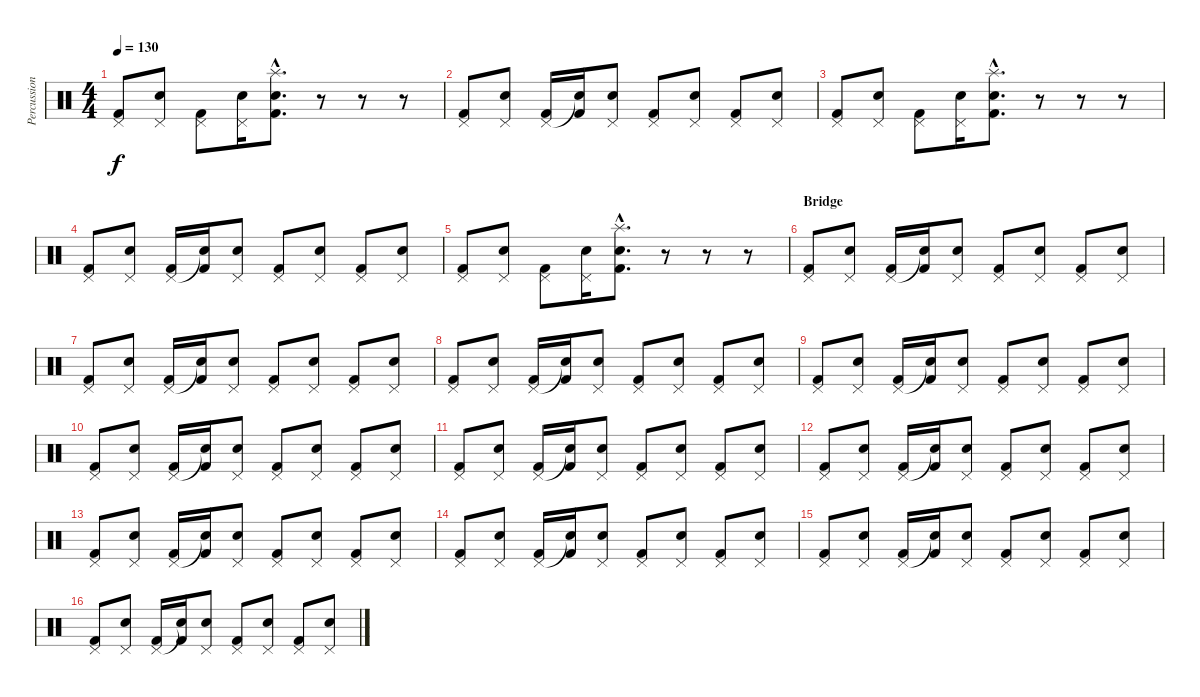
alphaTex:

\track ("Percussion" "Percussion") {instrument percussion}
\staff {score}
\articulation defaults
\ts (4 4)
\tempo 130
\clef neutral
\ks c
("Pedal Hi-Hat (hit)" "Kick (hit) 2").8{dy f} ("Pedal Hi-Hat (hit)" "Electric Snare (hit)").8 ("Pedal Hi-Hat (hit)" "Kick (hit) 2").8 ("Pedal Hi-Hat (hit)" "Electric Snare (hit)").16 ("Splash (hit)"{hac} "Electric Snare (hit)"{hac} "Kick (hit) 2"{hac}).8{d} r.8 r.8 r.8 |
("Pedal Hi-Hat (hit)" "Kick (hit) 2").8 ("Pedal Hi-Hat (hit)" "Electric Snare (hit)").8 ("Pedal Hi-Hat (hit)" "Kick (hit) 2").16 ("Snare (hit)"{t} "Kick (hit) 2").16 ("Pedal Hi-Hat (hit)" "Electric Snare (hit)").8 ("Pedal Hi-Hat (hit)" "Kick (hit) 2").8 ("Pedal Hi-Hat (hit)" "Electric Snare (hit)").8 ("Pedal Hi-Hat (hit)" "Kick (hit) 2").8 ("Pedal Hi-Hat (hit)" "Electric Snare (hit)").8 |
("Pedal Hi-Hat (hit)" "Kick (hit) 2").8 ("Pedal Hi-Hat (hit)" "Electric Snare (hit)").8 ("Pedal Hi-Hat (hit)" "Kick (hit) 2").8 ("Pedal Hi-Hat (hit)" "Electric Snare (hit)").16 ("Splash (hit)"{hac} "Electric Snare (hit)"{hac} "Kick (hit) 2"{hac}).8{d} r.8 r.8 r.8 |
("Pedal Hi-Hat (hit)" "Kick (hit) 2").8 ("Pedal Hi-Hat (hit)" "Electric Snare (hit)").8 ("Pedal Hi-Hat (hit)" "Kick (hit) 2").16 ("Snare (hit)"{t} "Kick (hit) 2").16 ("Pedal Hi-Hat (hit)" "Electric Snare (hit)").8 ("Pedal Hi-Hat (hit)" "Kick (hit) 2").8 ("Pedal Hi-Hat (hit)" "Electric Snare (hit)").8 ("Pedal Hi-Hat (hit)" "Kick (hit) 2").8 ("Pedal Hi-Hat (hit)" "Electric Snare (hit)").8 |
("Pedal Hi-Hat (hit)" "Kick (hit) 2").8 ("Pedal Hi-Hat (hit)" "Electric Snare (hit)").8 ("Pedal Hi-Hat (hit)" "Kick (hit) 2").8 ("Pedal Hi-Hat (hit)" "Electric Snare (hit)").16 ("Splash (hit)"{hac} "Electric Snare (hit)"{hac} "Kick (hit) 2"{hac}).8{d} r.8 r.8 r.8 |
\section ("" "Bridge")
("Pedal Hi-Hat (hit)" "Kick (hit) 2").8 ("Pedal Hi-Hat (hit)" "Electric Snare (hit)").8 ("Pedal Hi-Hat (hit)" "Kick (hit) 2").16 ("Snare (hit)"{t} "Kick (hit) 2").16 ("Pedal Hi-Hat (hit)" "Electric Snare (hit)").8 ("Pedal Hi-Hat (hit)" "Kick (hit) 2").8 ("Pedal Hi-Hat (hit)" "Electric Snare (hit)").8 ("Pedal Hi-Hat (hit)" "Kick (hit) 2").8 ("Pedal Hi-Hat (hit)" "Electric Snare (hit)").8 |
("Pedal Hi-Hat (hit)" "Kick (hit) 2").8 ("Pedal Hi-Hat (hit)" "Electric Snare (hit)").8 ("Pedal Hi-Hat (hit)" "Kick (hit) 2").16 ("Snare (hit)"{t} "Kick (hit) 2").16 ("Pedal Hi-Hat (hit)" "Electric Snare (hit)").8 ("Pedal Hi-Hat (hit)" "Kick (hit) 2").8 ("Pedal Hi-Hat (hit)" "Electric Snare (hit)").8 ("Pedal Hi-Hat (hit)" "Kick (hit) 2").8 ("Pedal Hi-Hat (hit)" "Electric Snare (hit)").8 |
("Pedal Hi-Hat (hit)" "Kick (hit) 2").8 ("Pedal Hi-Hat (hit)" "Electric Snare (hit)").8 ("Pedal Hi-Hat (hit)" "Kick (hit) 2").16 ("Snare (hit)"{t} "Kick (hit) 2").16 ("Pedal Hi-Hat (hit)" "Electric Snare (hit)").8 ("Pedal Hi-Hat (hit)" "Kick (hit) 2").8 ("Pedal Hi-Hat (hit)" "Electric Snare (hit)").8 ("Pedal Hi-Hat (hit)" "Kick (hit) 2").8 ("Pedal Hi-Hat (hit)" "Electric Snare (hit)").8 |
("Pedal Hi-Hat (hit)" "Kick (hit) 2").8 ("Pedal Hi-Hat (hit)" "Electric Snare (hit)").8 ("Pedal Hi-Hat (hit)" "Kick (hit) 2").16 ("Snare (hit)"{t} "Kick (hit) 2").16 ("Pedal Hi-Hat (hit)" "Electric Snare (hit)").8 ("Pedal Hi-Hat (hit)" "Kick (hit) 2").8 ("Pedal Hi-Hat (hit)" "Electric Snare (hit)").8 ("Pedal Hi-Hat (hit)" "Kick (hit) 2").8 ("Pedal Hi-Hat (hit)" "Electric Snare (hit)").8 |
("Pedal Hi-Hat (hit)" "Kick (hit) 2").8 ("Pedal Hi-Hat (hit)" "Electric Snare (hit)").8 ("Pedal Hi-Hat (hit)" "Kick (hit) 2").16 ("Snare (hit)"{t} "Kick (hit) 2").16 ("Pedal Hi-Hat (hit)" "Electric Snare (hit)").8 ("Pedal Hi-Hat (hit)" "Kick (hit) 2").8 ("Pedal Hi-Hat (hit)" "Electric Snare (hit)").8 ("Pedal Hi-Hat (hit)" "Kick (hit) 2").8 ("Pedal Hi-Hat (hit)" "Electric Snare (hit)").8 |
("Pedal Hi-Hat (hit)" "Kick (hit) 2").8 ("Pedal Hi-Hat (hit)" "Electric Snare (hit)").8 ("Pedal Hi-Hat (hit)" "Kick (hit) 2").16 ("Snare (hit)"{t} "Kick (hit) 2").16 ("Pedal Hi-Hat (hit)" "Electric Snare (hit)").8 ("Pedal Hi-Hat (hit)" "Kick (hit) 2").8 ("Pedal Hi-Hat (hit)" "Electric Snare (hit)").8 ("Pedal Hi-Hat (hit)" "Kick (hit) 2").8 ("Pedal Hi-Hat (hit)" "Electric Snare (hit)").8 |
("Pedal Hi-Hat (hit)" "Kick (hit) 2").8 ("Pedal Hi-Hat (hit)" "Electric Snare (hit)").8 ("Pedal Hi-Hat (hit)" "Kick (hit) 2").16 ("Snare (hit)"{t} "Kick (hit) 2").16 ("Pedal Hi-Hat (hit)" "Electric Snare (hit)").8 ("Pedal Hi-Hat (hit)" "Kick (hit) 2").8 ("Pedal Hi-Hat (hit)" "Electric Snare (hit)").8 ("Pedal Hi-Hat (hit)" "Kick (hit) 2").8 ("Pedal Hi-Hat (hit)" "Electric Snare (hit)").8 |
("Pedal Hi-Hat (hit)" "Kick (hit) 2").8 ("Pedal Hi-Hat (hit)" "Electric Snare (hit)").8 ("Pedal Hi-Hat (hit)" "Kick (hit) 2").16 ("Snare (hit)"{t} "Kick (hit) 2").16 ("Pedal Hi-Hat (hit)" "Electric Snare (hit)").8 ("Pedal Hi-Hat (hit)" "Kick (hit) 2").8 ("Pedal Hi-Hat (hit)" "Electric Snare (hit)").8 ("Pedal Hi-Hat (hit)" "Kick (hit) 2").8 ("Pedal Hi-Hat (hit)" "Electric Snare (hit)").8 |
("Pedal Hi-Hat (hit)" "Kick (hit) 2").8{volume 5} ("Pedal Hi-Hat (hit)" "Electric Snare (hit)").8 ("Pedal Hi-Hat (hit)" "Kick (hit) 2").16 ("Snare (hit)"{t} "Kick (hit) 2").16 ("Pedal Hi-Hat (hit)" "Electric Snare (hit)").8 ("Pedal Hi-Hat (hit)" "Kick (hit) 2").8 ("Pedal Hi-Hat (hit)" "Electric Snare (hit)").8 ("Pedal Hi-Hat (hit)" "Kick (hit) 2").8 ("Pedal Hi-Hat (hit)" "Electric Snare (hit)").8 |
("Pedal Hi-Hat (hit)" "Kick (hit) 2").8 ("Pedal Hi-Hat (hit)" "Electric Snare (hit)").8 ("Pedal Hi-Hat (hit)" "Kick (hit) 2").16 ("Snare (hit)"{t} "Kick (hit) 2").16 ("Pedal Hi-Hat (hit)" "Electric Snare (hit)").8 ("Pedal Hi-Hat (hit)" "Kick (hit) 2").8 ("Pedal Hi-Hat (hit)" "Electric Snare (hit)").8 ("Pedal Hi-Hat (hit)" "Kick (hit) 2").8 ("Pedal Hi-Hat (hit)" "Electric Snare (hit)").8 |
("Pedal Hi-Hat (hit)" "Kick (hit) 2").8 ("Pedal Hi-Hat (hit)" "Electric Snare (hit)").8 ("Pedal Hi-Hat (hit)" "Kick (hit) 2").16 ("Snare (hit)"{t} "Kick (hit) 2").16 ("Pedal Hi-Hat (hit)" "Electric Snare (hit)").8 ("Pedal Hi-Hat (hit)" "Kick (hit) 2").8 ("Pedal Hi-Hat (hit)" "Electric Snare (hit)").8 ("Pedal Hi-Hat (hit)" "Kick (hit) 2").8 ("Pedal Hi-Hat (hit)" "Electric Snare (hit)").8
